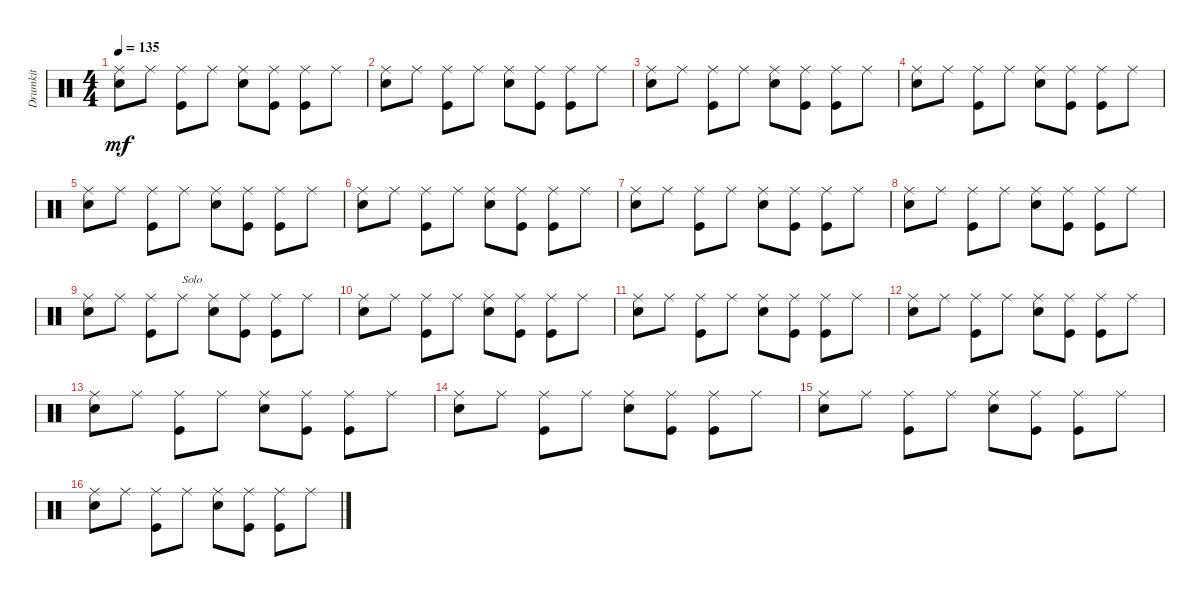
\track ("Drumkit" "Drumkit") {instrument percussion}
\staff {score}
\articulation defaults
\ts (4 4)
\tempo 135
\clef neutral
\ks c
("Snare (hit) 2" "Ride (middle)").8{dy mf} "Ride (middle)".8 ("Kick (hit)" "Ride (middle)").8 "Ride (middle)".8 ("Snare (hit) 2" "Ride (middle)").8 ("Kick (hit)" "Ride (middle)").8 ("Kick (hit)" "Ride (middle)").8 "Ride (middle)".8 |
("Snare (hit) 2" "Ride (middle)").8 "Ride (middle)".8 ("Kick (hit)" "Ride (middle)").8 "Ride (middle)".8 ("Snare (hit) 2" "Ride (middle)").8 ("Kick (hit)" "Ride (middle)").8 ("Kick (hit)" "Ride (middle)").8 "Ride (middle)".8 |
("Snare (hit) 2" "Ride (middle)").8 "Ride (middle)".8 ("Kick (hit)" "Ride (middle)").8 "Ride (middle)".8 ("Snare (hit) 2" "Ride (middle)").8 ("Kick (hit)" "Ride (middle)").8 ("Kick (hit)" "Ride (middle)").8 "Ride (middle)".8 |
("Snare (hit) 2" "Ride (middle)").8 "Ride (middle)".8 ("Kick (hit)" "Ride (middle)").8 "Ride (middle)".8 ("Snare (hit) 2" "Ride (middle)").8 ("Kick (hit)" "Ride (middle)").8 ("Kick (hit)" "Ride (middle)").8 "Ride (middle)".8 |
("Snare (hit) 2" "Ride (middle)").8 "Ride (middle)".8 ("Kick (hit)" "Ride (middle)").8 "Ride (middle)".8 ("Snare (hit) 2" "Ride (middle)").8 ("Kick (hit)" "Ride (middle)").8 ("Kick (hit)" "Ride (middle)").8 "Ride (middle)".8 |
("Snare (hit) 2" "Ride (middle)").8 "Ride (middle)".8 ("Kick (hit)" "Ride (middle)").8 "Ride (middle)".8 ("Snare (hit) 2" "Ride (middle)").8 ("Kick (hit)" "Ride (middle)").8 ("Kick (hit)" "Ride (middle)").8 "Ride (middle)".8 |
("Snare (hit) 2" "Ride (middle)").8 "Ride (middle)".8 ("Kick (hit)" "Ride (middle)").8 "Ride (middle)".8 ("Snare (hit) 2" "Ride (middle)").8 ("Kick (hit)" "Ride (middle)").8 ("Kick (hit)" "Ride (middle)").8 "Ride (middle)".8 |
("Snare (hit) 2" "Ride (middle)").8 "Ride (middle)".8 ("Kick (hit)" "Ride (middle)").8 "Ride (middle)".8 ("Snare (hit) 2" "Ride (middle)").8 ("Kick (hit)" "Ride (middle)").8 ("Kick (hit)" "Ride (middle)").8 "Ride (middle)".8 |
("Snare (hit) 2" "Ride (middle)").8 "Ride (middle)".8 ("Kick (hit)" "Ride (middle)").8 "Ride (middle)".8{txt "Solo"} ("Snare (hit) 2" "Ride (middle)").8 ("Kick (hit)" "Ride (middle)").8 ("Kick (hit)" "Ride (middle)").8 "Ride (middle)".8 |
("Snare (hit) 2" "Ride (middle)").8 "Ride (middle)".8 ("Kick (hit)" "Ride (middle)").8 "Ride (middle)".8 ("Snare (hit) 2" "Ride (middle)").8 ("Kick (hit)" "Ride (middle)").8 ("Kick (hit)" "Ride (middle)").8 "Ride (middle)".8 |
("Snare (hit) 2" "Ride (middle)").8 "Ride (middle)".8 ("Kick (hit)" "Ride (middle)").8 "Ride (middle)".8 ("Snare (hit) 2" "Ride (middle)").8 ("Kick (hit)" "Ride (middle)").8 ("Kick (hit)" "Ride (middle)").8 "Ride (middle)".8 |
("Snare (hit) 2" "Ride (middle)").8 "Ride (middle)".8 ("Kick (hit)" "Ride (middle)").8 "Ride (middle)".8 ("Snare (hit) 2" "Ride (middle)").8 ("Kick (hit)" "Ride (middle)").8 ("Kick (hit)" "Ride (middle)").8 "Ride (middle)".8 |
("Snare (hit) 2" "Ride (middle)").8 "Ride (middle)".8 ("Kick (hit)" "Ride (middle)").8 "Ride (middle)".8 ("Snare (hit) 2" "Ride (middle)").8 ("Kick (hit)" "Ride (middle)").8 ("Kick (hit)" "Ride (middle)").8 "Ride (middle)".8 |
("Snare (hit) 2" "Ride (middle)").8 "Ride (middle)".8 ("Kick (hit)" "Ride (middle)").8 "Ride (middle)".8 ("Snare (hit) 2" "Ride (middle)").8 ("Kick (hit)" "Ride (middle)").8 ("Kick (hit)" "Ride (middle)").8 "Ride (middle)".8 |
("Snare (hit) 2" "Ride (middle)").8 "Ride (middle)".8 ("Kick (hit)" "Ride (middle)").8 "Ride (middle)".8 ("Snare (hit) 2" "Ride (middle)").8 ("Kick (hit)" "Ride (middle)").8 ("Kick (hit)" "Ride (middle)").8 "Ride (middle)".8 |
("Snare (hit) 2" "Ride (middle)").8 "Ride (middle)".8 ("Kick (hit)" "Ride (middle)").8 "Ride (middle)".8 ("Snare (hit) 2" "Ride (middle)").8 ("Kick (hit)" "Ride (middle)").8 ("Kick (hit)" "Ride (middle)").8 "Ride (middle)".8
